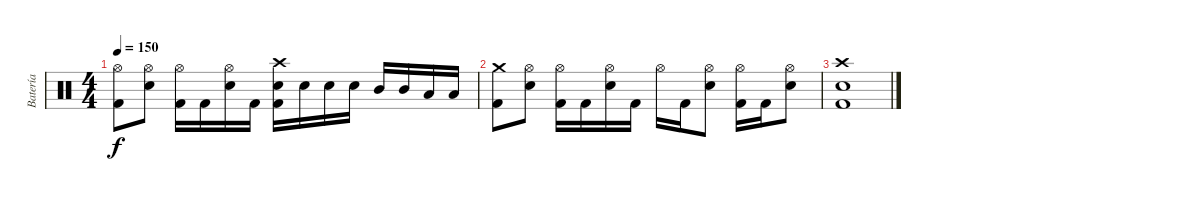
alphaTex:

\track ("Batería" "Batería") {instrument percussion}
\staff {score}
\articulation defaults
\ts (4 4)
\tempo 150
\clef neutral
\ks c
("Kick (hit) 2" "Hi-Hat (open)").8{dy f} ("Snare (hit) 2" "Hi-Hat (open)").8 ("Kick (hit) 2" "Hi-Hat (open)").16 "Kick (hit) 2".16 ("Snare (hit) 2" "Hi-Hat (open)").16 "Kick (hit) 2".16 ("Kick (hit) 2" "Snare (hit) 2" "Crash high (hit)").16 "Snare (hit) 2".16 "Snare (hit) 2".16 "Snare (hit) 2".16 "Mid Tom (hit)".16 "Mid Tom (hit)".16 "Low Tom (hit)".16 "Low Tom (hit)".16 |
("Kick (hit) 2" "Crash medium (hit)").8 ("Snare (hit) 2" "Hi-Hat (open)").8 ("Kick (hit) 2" "Hi-Hat (open)").16 "Kick (hit) 2".16 ("Snare (hit) 2" "Hi-Hat (open)").16 "Kick (hit) 2".16 "Hi-Hat (open)".16 "Kick (hit) 2".16 ("Snare (hit) 2" "Hi-Hat (open)").8 ("Kick (hit) 2" "Hi-Hat (open)").16 "Kick (hit) 2".16 ("Snare (hit) 2" "Hi-Hat (open)").8 |
("Kick (hit) 2" "Snare (hit) 2" "Crash high (hit)").1
